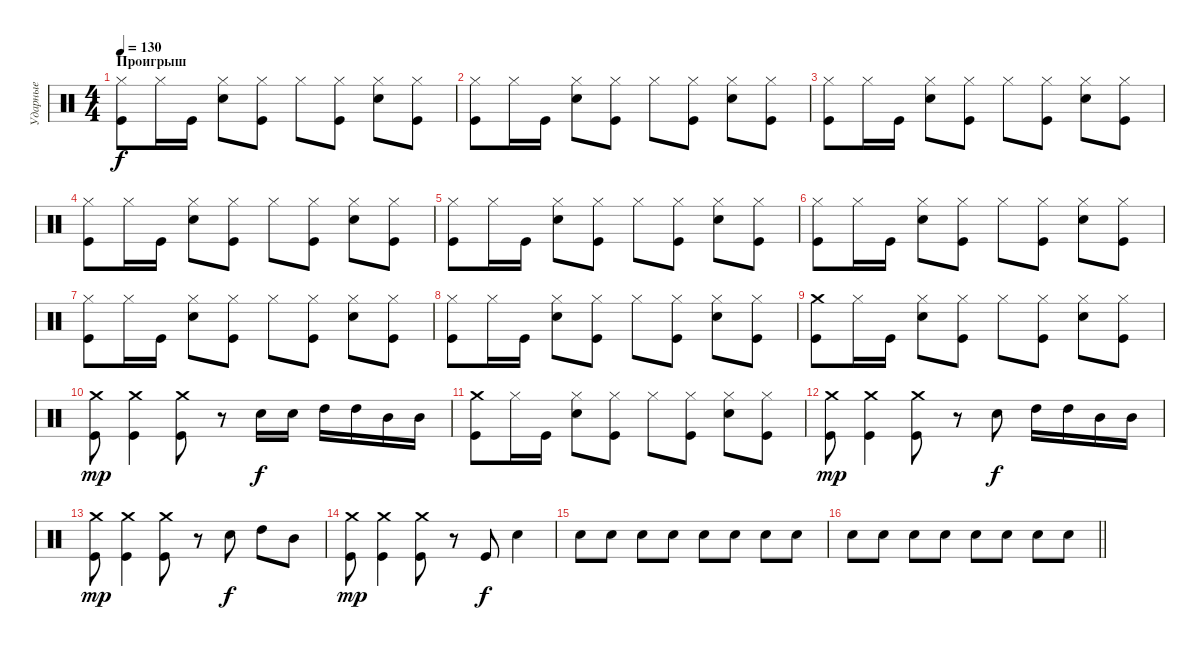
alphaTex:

\track ("Ударные" "Ударные") {instrument percussion}
\staff {score}
\articulation defaults
\ts (4 4)
\section ("" "Проигрыш")
\tempo 130
\clef neutral
\ks c
("Kick (hit)" "Hi-Hat (closed)").8{dy f} "Hi-Hat (closed)".16 "Kick (hit)".16 ("Electric Snare (hit)" "Hi-Hat (closed)").8 ("Kick (hit)" "Hi-Hat (closed)").8 "Hi-Hat (closed)".8 ("Kick (hit)" "Hi-Hat (closed)").8 ("Electric Snare (hit)" "Hi-Hat (closed)").8 ("Kick (hit)" "Hi-Hat (closed)").8 |
("Kick (hit)" "Hi-Hat (closed)").8 "Hi-Hat (closed)".16 "Kick (hit)".16 ("Electric Snare (hit)" "Hi-Hat (closed)").8 ("Kick (hit)" "Hi-Hat (closed)").8 "Hi-Hat (closed)".8 ("Kick (hit)" "Hi-Hat (closed)").8 ("Electric Snare (hit)" "Hi-Hat (closed)").8 ("Kick (hit)" "Hi-Hat (closed)").8 |
("Kick (hit)" "Hi-Hat (closed)").8 "Hi-Hat (closed)".16 "Kick (hit)".16 ("Electric Snare (hit)" "Hi-Hat (closed)").8 ("Kick (hit)" "Hi-Hat (closed)").8 "Hi-Hat (closed)".8 ("Kick (hit)" "Hi-Hat (closed)").8 ("Electric Snare (hit)" "Hi-Hat (closed)").8 ("Kick (hit)" "Hi-Hat (closed)").8 |
("Kick (hit)" "Hi-Hat (closed)").8 "Hi-Hat (closed)".16 "Kick (hit)".16 ("Electric Snare (hit)" "Hi-Hat (closed)").8 ("Kick (hit)" "Hi-Hat (closed)").8 "Hi-Hat (closed)".8 ("Kick (hit)" "Hi-Hat (closed)").8 ("Electric Snare (hit)" "Hi-Hat (closed)").8 ("Kick (hit)" "Hi-Hat (closed)").8 |
("Kick (hit)" "Hi-Hat (closed)").8 "Hi-Hat (closed)".16 "Kick (hit)".16 ("Electric Snare (hit)" "Hi-Hat (closed)").8 ("Kick (hit)" "Hi-Hat (closed)").8 "Hi-Hat (closed)".8 ("Kick (hit)" "Hi-Hat (closed)").8 ("Electric Snare (hit)" "Hi-Hat (closed)").8 ("Kick (hit)" "Hi-Hat (closed)").8 |
("Kick (hit)" "Hi-Hat (closed)").8 "Hi-Hat (closed)".16 "Kick (hit)".16 ("Electric Snare (hit)" "Hi-Hat (closed)").8 ("Kick (hit)" "Hi-Hat (closed)").8 "Hi-Hat (closed)".8 ("Kick (hit)" "Hi-Hat (closed)").8 ("Electric Snare (hit)" "Hi-Hat (closed)").8 ("Kick (hit)" "Hi-Hat (closed)").8 |
("Kick (hit)" "Hi-Hat (closed)").8 "Hi-Hat (closed)".16 "Kick (hit)".16 ("Electric Snare (hit)" "Hi-Hat (closed)").8 ("Kick (hit)" "Hi-Hat (closed)").8 "Hi-Hat (closed)".8 ("Kick (hit)" "Hi-Hat (closed)").8 ("Electric Snare (hit)" "Hi-Hat (closed)").8 ("Kick (hit)" "Hi-Hat (closed)").8 |
("Kick (hit)" "Hi-Hat (closed)").8 "Hi-Hat (closed)".16 "Kick (hit)".16 ("Electric Snare (hit)" "Hi-Hat (closed)").8 ("Kick (hit)" "Hi-Hat (closed)").8 "Hi-Hat (closed)".8 ("Kick (hit)" "Hi-Hat (closed)").8 ("Electric Snare (hit)" "Hi-Hat (closed)").8 ("Kick (hit)" "Hi-Hat (closed)").8 |
("Kick (hit)" "Crash medium (hit)").8 "Hi-Hat (closed)".16 "Kick (hit)".16 ("Electric Snare (hit)" "Hi-Hat (closed)").8 ("Kick (hit)" "Hi-Hat (closed)").8 "Hi-Hat (closed)".8 ("Kick (hit)" "Hi-Hat (closed)").8 ("Electric Snare (hit)" "Hi-Hat (closed)").8 ("Kick (hit)" "Hi-Hat (closed)").8 |
("Crash medium (hit)" "Kick (hit)").8{dy mp} ("Crash medium (hit)" "Kick (hit)").4 ("Crash medium (hit)" "Kick (hit)").8 r.8 "Electric Snare (hit)".16{dy f} "Electric Snare (hit)".16 "High Tom (hit)".16 "High Tom (hit)".16 "Mid Tom (hit)".16 "Mid Tom (hit)".16 |
("Kick (hit)" "Crash medium (hit)").8 "Hi-Hat (closed)".16 "Kick (hit)".16 ("Electric Snare (hit)" "Hi-Hat (closed)").8 ("Kick (hit)" "Hi-Hat (closed)").8 "Hi-Hat (closed)".8 ("Kick (hit)" "Hi-Hat (closed)").8 ("Electric Snare (hit)" "Hi-Hat (closed)").8 ("Kick (hit)" "Hi-Hat (closed)").8 |
("Crash medium (hit)" "Kick (hit)").8{dy mp} ("Crash medium (hit)" "Kick (hit)").4 ("Crash medium (hit)" "Kick (hit)").8 r.8 "Electric Snare (hit)".8{dy f} "High Tom (hit)".16 "High Tom (hit)".16 "Mid Tom (hit)".16 "Mid Tom (hit)".16 |
("Crash medium (hit)" "Kick (hit)").8{dy mp} ("Crash medium (hit)" "Kick (hit)").4 ("Crash medium (hit)" "Kick (hit)").8 r.8 "Electric Snare (hit)".8{dy f} "High Tom (hit)".8 "Mid Tom (hit)".8 |
("Crash medium (hit)" "Kick (hit)").8{dy mp} ("Crash medium (hit)" "Kick (hit)").4 ("Crash medium (hit)" "Kick (hit)").8 r.8 "Kick (hit)".8{dy f} "Electric Snare (hit)".4 |
"Electric Snare (hit)".8 "Electric Snare (hit)".8 "Electric Snare (hit)".8 "Electric Snare (hit)".8 "Electric Snare (hit)".8 "Electric Snare (hit)".8 "Electric Snare (hit)".8 "Electric Snare (hit)".8 |
\barLineRight lightlight "Electric Snare (hit)".8 "Electric Snare (hit)".8 "Electric Snare (hit)".8 "Electric Snare (hit)".8 "Electric Snare (hit)".8 "Electric Snare (hit)".8 "Electric Snare (hit)".8 "Electric Snare (hit)".8
